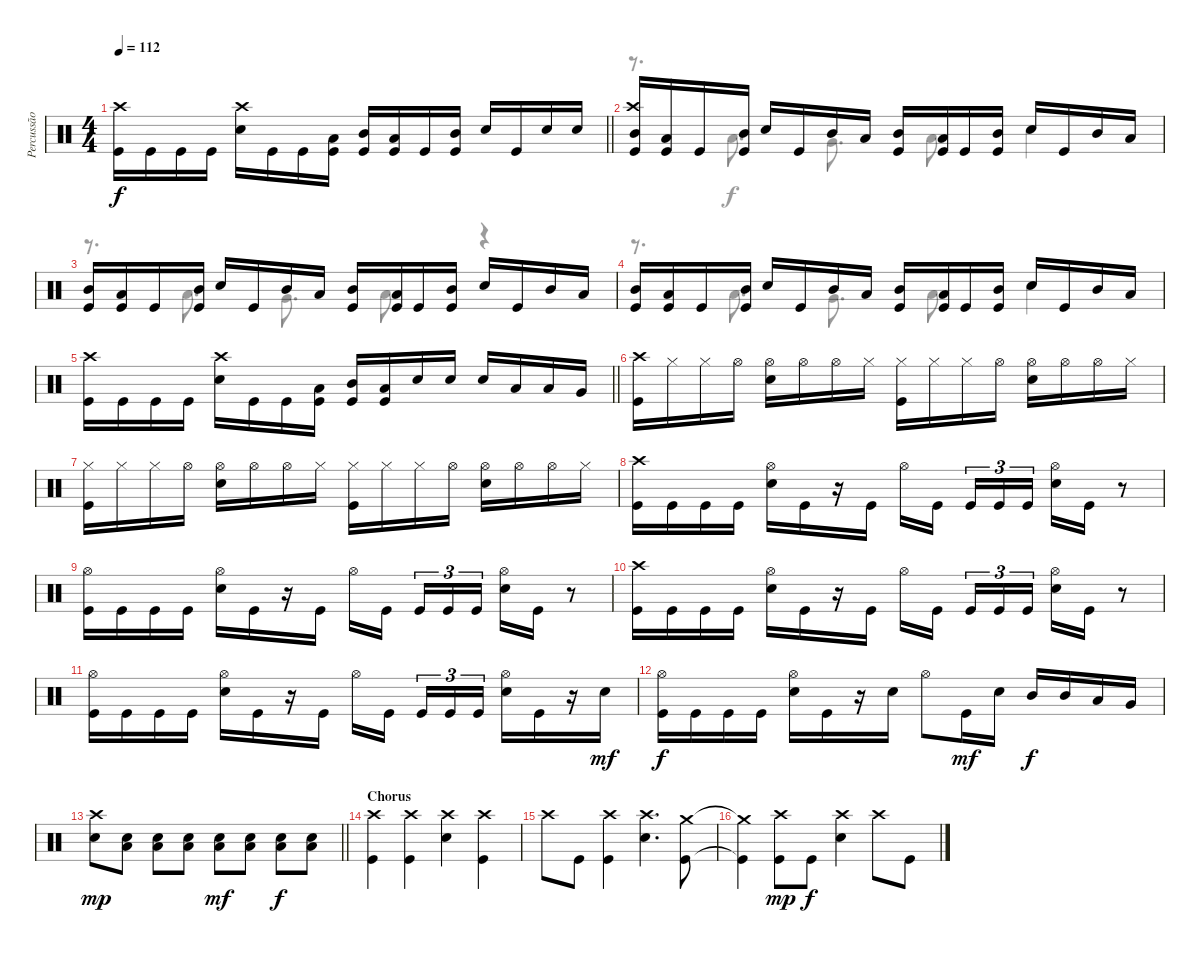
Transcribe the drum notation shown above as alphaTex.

\track ("Percussão" "Percussão") {instrument percussion}
\staff {score}
\articulation defaults
\voice
\ts (4 4)
\tempo 112
\clef neutral
\barLineRight lightlight
\ks c
("Crash high (hit)" "Kick (hit)").16{dy f} "Kick (hit)".16 "Kick (hit)".16 "Kick (hit)".16 ("Crash high (hit)" "Electric Snare (hit)").16 "Kick (hit)".16 "Kick (hit)".16 ("Low Tom (hit)" "Kick (hit)").16 ("Mid Tom (hit)" "Kick (hit)").16 ("Low Tom (hit)" "Kick (hit)").16 "Kick (hit)".16 ("Mid Tom (hit)" "Kick (hit)").16 "Electric Snare (hit)".16 "Kick (hit)".16 "Electric Snare (hit)".16 "Electric Snare (hit)".16 |
("Crash high (hit)" "Mid Tom (hit)" "Kick (hit)").16 ("Low Tom (hit)" "Kick (hit)").16 "Kick (hit)".16 ("Mid Tom (hit)" "Kick (hit)").16 "Electric Snare (hit)".16 "Kick (hit)".16 "Mid Tom (hit)".16 "Low Tom (hit)".16 ("Mid Tom (hit)" "Kick (hit)").16 ("Low Tom (hit)" "Kick (hit)").16 "Kick (hit)".16 ("Mid Tom (hit)" "Kick (hit)").16 "Electric Snare (hit)".16 "Kick (hit)".16 "Mid Tom (hit)".16 "Low Tom (hit)".16 |
("Mid Tom (hit)" "Kick (hit)").16 ("Low Tom (hit)" "Kick (hit)").16 "Kick (hit)".16 ("Mid Tom (hit)" "Kick (hit)").16 "Electric Snare (hit)".16 "Kick (hit)".16 "Mid Tom (hit)".16 "Low Tom (hit)".16 ("Mid Tom (hit)" "Kick (hit)").16 ("Low Tom (hit)" "Kick (hit)").16 "Kick (hit)".16 ("Mid Tom (hit)" "Kick (hit)").16 "Electric Snare (hit)".16 "Kick (hit)".16 "Mid Tom (hit)".16 "Low Tom (hit)".16 |
("Mid Tom (hit)" "Kick (hit)").16 ("Low Tom (hit)" "Kick (hit)").16 "Kick (hit)".16 ("Mid Tom (hit)" "Kick (hit)").16 "Electric Snare (hit)".16 "Kick (hit)".16 "Mid Tom (hit)".16 "Low Tom (hit)".16 ("Mid Tom (hit)" "Kick (hit)").16 ("Low Tom (hit)" "Kick (hit)").16 "Kick (hit)".16 ("Mid Tom (hit)" "Kick (hit)").16 "Electric Snare (hit)".16 "Kick (hit)".16 "Mid Tom (hit)".16 "Low Tom (hit)".16 |
\barLineRight lightlight
("Crash high (hit)" "Kick (hit)").16 "Kick (hit)".16 "Kick (hit)".16 "Kick (hit)".16 ("Crash high (hit)" "Electric Snare (hit)").16 "Kick (hit)".16 "Kick (hit)".16 ("Low Tom (hit)" "Kick (hit)").16 ("Mid Tom (hit)" "Kick (hit)").16 ("Low Tom (hit)" "Kick (hit)").16 "Electric Snare (hit)".16 "Electric Snare (hit)".16 "Electric Snare (hit)".16 "Low Tom (hit)".16 "Low Tom (hit)".16 "Very Low Tom (hit)".16 |
\section ("" "")
("Crash high (hit)" "Kick (hit)").16 "Hi-Hat (closed)".16 "Hi-Hat (closed)".16 "Hi-Hat (open)".16 ("Hi-Hat (open)" "Electric Snare (hit)").16 "Hi-Hat (open)".16 "Hi-Hat (open)".16 "Hi-Hat (closed)".16 ("Hi-Hat (closed)" "Kick (hit)").16 "Hi-Hat (closed)".16 "Hi-Hat (closed)".16 "Hi-Hat (open)".16 ("Hi-Hat (open)" "Electric Snare (hit)").16 "Hi-Hat (open)".16 "Hi-Hat (open)".16 "Hi-Hat (closed)".16 |
("Hi-Hat (closed)" "Kick (hit)").16 "Hi-Hat (closed)".16 "Hi-Hat (closed)".16 "Hi-Hat (open)".16 ("Hi-Hat (open)" "Electric Snare (hit)").16 "Hi-Hat (open)".16 "Hi-Hat (open)".16 "Hi-Hat (closed)".16 ("Hi-Hat (closed)" "Kick (hit)").16 "Hi-Hat (closed)".16 "Hi-Hat (closed)".16 "Hi-Hat (open)".16 ("Hi-Hat (open)" "Electric Snare (hit)").16 "Hi-Hat (open)".16 "Hi-Hat (open)".16 "Hi-Hat (closed)".16 |
("Crash high (hit)" "Kick (hit)").16 "Kick (hit)".16 "Kick (hit)".16 "Kick (hit)".16 ("Hi-Hat (open)" "Electric Snare (hit)").16 "Kick (hit)".16 r.16 "Kick (hit)".16 "Hi-Hat (open)".16 "Kick (hit)".16{beam splitsecondary} "Kick (hit)".16{tu (3 2)} "Kick (hit)".16{tu (3 2)} "Kick (hit)".16{tu (3 2)} ("Hi-Hat (open)" "Electric Snare (hit)").16 "Kick (hit)".16 r.8 |
("Hi-Hat (open)" "Kick (hit)").16 "Kick (hit)".16 "Kick (hit)".16 "Kick (hit)".16 ("Hi-Hat (open)" "Electric Snare (hit)").16 "Kick (hit)".16 r.16 "Kick (hit)".16 "Hi-Hat (open)".16 "Kick (hit)".16{beam splitsecondary} "Kick (hit)".16{tu (3 2)} "Kick (hit)".16{tu (3 2)} "Kick (hit)".16{tu (3 2)} ("Hi-Hat (open)" "Electric Snare (hit)").16 "Kick (hit)".16 r.8 |
("Crash high (hit)" "Kick (hit)").16 "Kick (hit)".16 "Kick (hit)".16 "Kick (hit)".16 ("Hi-Hat (open)" "Electric Snare (hit)").16 "Kick (hit)".16 r.16 "Kick (hit)".16 "Hi-Hat (open)".16 "Kick (hit)".16{beam splitsecondary} "Kick (hit)".16{tu (3 2)} "Kick (hit)".16{tu (3 2)} "Kick (hit)".16{tu (3 2)} ("Hi-Hat (open)" "Electric Snare (hit)").16 "Kick (hit)".16 r.8 |
("Hi-Hat (open)" "Kick (hit)").16 "Kick (hit)".16 "Kick (hit)".16 "Kick (hit)".16 ("Hi-Hat (open)" "Electric Snare (hit)").16 "Kick (hit)".16 r.16 "Kick (hit)".16 "Hi-Hat (open)".16 "Kick (hit)".16{beam splitsecondary} "Kick (hit)".16{tu (3 2)} "Kick (hit)".16{tu (3 2)} "Kick (hit)".16{tu (3 2)} ("Hi-Hat (open)" "Electric Snare (hit)").16 "Kick (hit)".16 r.16 "Electric Snare (hit)".16{dy mf} |
("Hi-Hat (open)" "Kick (hit)").16{dy f} "Kick (hit)".16 "Kick (hit)".16 "Kick (hit)".16 ("Hi-Hat (open)" "Electric Snare (hit)").16 "Kick (hit)".16 r.16 "Electric Snare (hit)".16 "Hi-Hat (open)".8 "Kick (hit)".16{dy mf} "Electric Snare (hit)".16 "Mid Tom (hit)".16{dy f} "Mid Tom (hit)".16 "Low Tom (hit)".16 "Very Low Tom (hit)".16 |
\barLineRight lightlight
("Crash high (hit)" "Electric Snare (hit)").8{dy mp} ("Low Floor Tom (hit)" "Electric Snare (hit)").8 ("Low Floor Tom (hit)" "Electric Snare (hit)").8 ("Low Floor Tom (hit)" "Electric Snare (hit)").8 ("Low Floor Tom (hit)" "Electric Snare (hit)").8{dy mf} ("Low Floor Tom (hit)" "Electric Snare (hit)").8 ("Low Floor Tom (hit)" "Electric Snare (hit)").8{dy f} ("Low Floor Tom (hit)" "Electric Snare (hit)").8 |
\section ("" "Chorus")
("Crash high (hit)" "Kick (hit)").4 ("Crash high (hit)" "Kick (hit)").4 ("Crash high (hit)" "Electric Snare (hit)").4 ("Crash high (hit)" "Kick (hit)").4 |
"Crash high (hit)".8 "Kick (hit)".8 ("Crash high (hit)" "Kick (hit)").4 ("Crash high (hit)" "Electric Snare (hit)").4{d} ("Crash medium (hit)" "Kick (hit)").8 |
("Crash medium (hit)"{t} "Kick (hit)"{t}).4 ("Crash high (hit)" "Kick (hit)").8{dy mp} "Kick (hit)".8{dy f} ("Crash high (hit)" "Electric Snare (hit)").4 "Crash high (hit)".8 "Kick (hit)".8
\voice
\clef neutral
\ottava regular
\simile none
\barLineRight lightlight
\ks c
|
r.8{d} "Low Tom (hit)".8{d} "Very Low Tom (hit)".8{d} "Low Floor Tom (hit)".8{d} "Electric Snare (hit)".4 |
r.8{d} "Low Tom (hit)".8{d} "Very Low Tom (hit)".8{d} "Low Floor Tom (hit)".8{d} r.4 |
r.8{d} "Low Tom (hit)".8{d} "Very Low Tom (hit)".8{d} "Low Floor Tom (hit)".8{d} "Electric Snare (hit)".4 |
\barLineRight lightlight
|
|
|
|
|
|
|
|
\barLineRight lightlight
|
|
|
